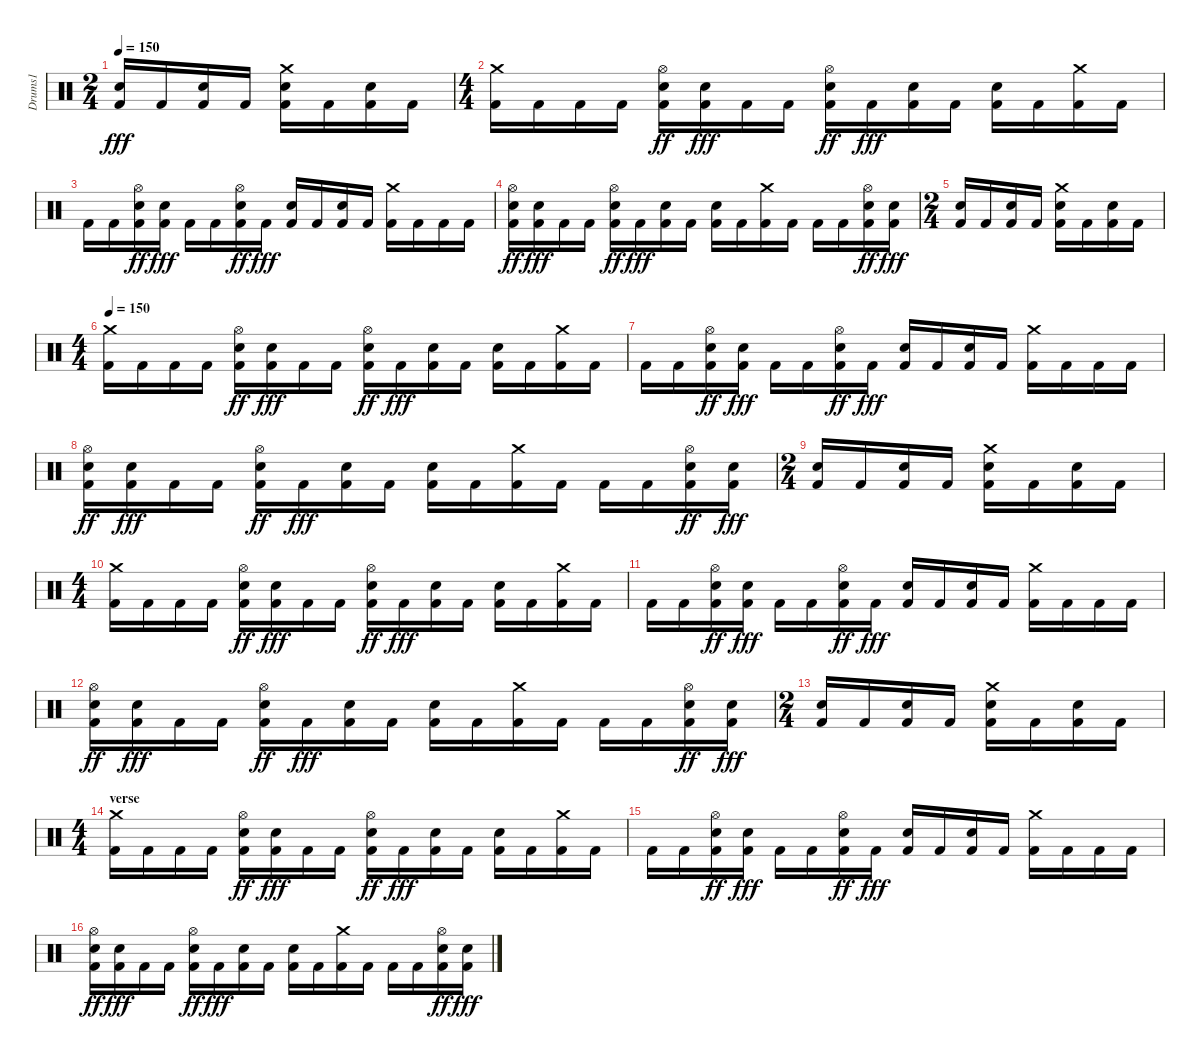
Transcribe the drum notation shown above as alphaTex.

\track ("Drums1" "Drums1") {instrument percussion}
\staff {score}
\articulation defaults
\ts (2 4)
\tempo 150
\clef neutral
\ks c
("Kick (hit) 2" "Electric Snare (hit)").16{dy fff} "Kick (hit) 2".16 ("Kick (hit) 2" "Electric Snare (hit)").16 "Kick (hit) 2".16 ("Kick (hit) 2" "Electric Snare (hit)" "Crash medium (hit)").16 "Kick (hit) 2".16 ("Kick (hit) 2" "Electric Snare (hit)").16 "Kick (hit) 2".16 |
\ts (4 4)
("Crash medium (hit)" "Kick (hit) 2").16 "Kick (hit) 2".16 "Kick (hit) 2".16 "Kick (hit) 2".16 ("Electric Snare (hit)" "Kick (hit) 2" "Hi-Hat (open)").16{dy ff} ("Electric Snare (hit)" "Kick (hit) 2").16{dy fff} "Kick (hit) 2".16 "Kick (hit) 2".16 ("Electric Snare (hit)" "Kick (hit) 2" "Hi-Hat (open)").16{dy ff} "Kick (hit) 2".16{dy fff} ("Electric Snare (hit)" "Kick (hit) 2").16 "Kick (hit) 2".16 ("Electric Snare (hit)" "Kick (hit) 2").16 "Kick (hit) 2".16 ("Crash medium (hit)" "Kick (hit) 2").16 "Kick (hit) 2".16 |
"Kick (hit) 2".16 "Kick (hit) 2".16 ("Electric Snare (hit)" "Kick (hit) 2" "Hi-Hat (open)").16{dy ff} ("Electric Snare (hit)" "Kick (hit) 2").16{dy fff} "Kick (hit) 2".16 "Kick (hit) 2".16 ("Electric Snare (hit)" "Kick (hit) 2" "Hi-Hat (open)").16{dy ff} "Kick (hit) 2".16{dy fff} ("Electric Snare (hit)" "Kick (hit) 2").16 "Kick (hit) 2".16 ("Electric Snare (hit)" "Kick (hit) 2").16 "Kick (hit) 2".16 ("Crash medium (hit)" "Kick (hit) 2").16 "Kick (hit) 2".16 "Kick (hit) 2".16 "Kick (hit) 2".16 |
("Electric Snare (hit)" "Kick (hit) 2" "Hi-Hat (open)").16{dy ff} ("Electric Snare (hit)" "Kick (hit) 2").16{dy fff} "Kick (hit) 2".16 "Kick (hit) 2".16 ("Electric Snare (hit)" "Kick (hit) 2" "Hi-Hat (open)").16{dy ff} "Kick (hit) 2".16{dy fff} ("Electric Snare (hit)" "Kick (hit) 2").16 "Kick (hit) 2".16 ("Electric Snare (hit)" "Kick (hit) 2").16 "Kick (hit) 2".16 ("Crash medium (hit)" "Kick (hit) 2").16 "Kick (hit) 2".16 "Kick (hit) 2".16 "Kick (hit) 2".16 ("Electric Snare (hit)" "Kick (hit) 2" "Hi-Hat (open)").16{dy ff} ("Electric Snare (hit)" "Kick (hit) 2").16{dy fff} |
\ts (2 4)
("Kick (hit) 2" "Electric Snare (hit)").16 "Kick (hit) 2".16 ("Kick (hit) 2" "Electric Snare (hit)").16 "Kick (hit) 2".16 ("Kick (hit) 2" "Electric Snare (hit)" "Crash medium (hit)").16 "Kick (hit) 2".16 ("Kick (hit) 2" "Electric Snare (hit)").16 "Kick (hit) 2".16 |
\ts (4 4)
\tempo 150
("Crash medium (hit)" "Kick (hit) 2").16 "Kick (hit) 2".16 "Kick (hit) 2".16 "Kick (hit) 2".16 ("Electric Snare (hit)" "Kick (hit) 2" "Hi-Hat (open)").16{dy ff} ("Electric Snare (hit)" "Kick (hit) 2").16{dy fff} "Kick (hit) 2".16 "Kick (hit) 2".16 ("Electric Snare (hit)" "Kick (hit) 2" "Hi-Hat (open)").16{dy ff} "Kick (hit) 2".16{dy fff} ("Electric Snare (hit)" "Kick (hit) 2").16 "Kick (hit) 2".16 ("Electric Snare (hit)" "Kick (hit) 2").16 "Kick (hit) 2".16 ("Crash medium (hit)" "Kick (hit) 2").16 "Kick (hit) 2".16 |
"Kick (hit) 2".16 "Kick (hit) 2".16 ("Electric Snare (hit)" "Kick (hit) 2" "Hi-Hat (open)").16{dy ff} ("Electric Snare (hit)" "Kick (hit) 2").16{dy fff} "Kick (hit) 2".16 "Kick (hit) 2".16 ("Electric Snare (hit)" "Kick (hit) 2" "Hi-Hat (open)").16{dy ff} "Kick (hit) 2".16{dy fff} ("Electric Snare (hit)" "Kick (hit) 2").16 "Kick (hit) 2".16 ("Electric Snare (hit)" "Kick (hit) 2").16 "Kick (hit) 2".16 ("Crash medium (hit)" "Kick (hit) 2").16 "Kick (hit) 2".16 "Kick (hit) 2".16 "Kick (hit) 2".16 |
("Electric Snare (hit)" "Kick (hit) 2" "Hi-Hat (open)").16{dy ff} ("Electric Snare (hit)" "Kick (hit) 2").16{dy fff} "Kick (hit) 2".16 "Kick (hit) 2".16 ("Electric Snare (hit)" "Kick (hit) 2" "Hi-Hat (open)").16{dy ff} "Kick (hit) 2".16{dy fff} ("Electric Snare (hit)" "Kick (hit) 2").16 "Kick (hit) 2".16 ("Electric Snare (hit)" "Kick (hit) 2").16 "Kick (hit) 2".16 ("Crash medium (hit)" "Kick (hit) 2").16 "Kick (hit) 2".16 "Kick (hit) 2".16 "Kick (hit) 2".16 ("Electric Snare (hit)" "Kick (hit) 2" "Hi-Hat (open)").16{dy ff} ("Electric Snare (hit)" "Kick (hit) 2").16{dy fff} |
\ts (2 4)
("Kick (hit) 2" "Electric Snare (hit)").16 "Kick (hit) 2".16 ("Kick (hit) 2" "Electric Snare (hit)").16 "Kick (hit) 2".16 ("Kick (hit) 2" "Electric Snare (hit)" "Crash medium (hit)").16 "Kick (hit) 2".16 ("Kick (hit) 2" "Electric Snare (hit)").16 "Kick (hit) 2".16 |
\ts (4 4)
("Crash medium (hit)" "Kick (hit) 2").16 "Kick (hit) 2".16 "Kick (hit) 2".16 "Kick (hit) 2".16 ("Electric Snare (hit)" "Kick (hit) 2" "Hi-Hat (open)").16{dy ff} ("Electric Snare (hit)" "Kick (hit) 2").16{dy fff} "Kick (hit) 2".16 "Kick (hit) 2".16 ("Electric Snare (hit)" "Kick (hit) 2" "Hi-Hat (open)").16{dy ff} "Kick (hit) 2".16{dy fff} ("Electric Snare (hit)" "Kick (hit) 2").16 "Kick (hit) 2".16 ("Electric Snare (hit)" "Kick (hit) 2").16 "Kick (hit) 2".16 ("Crash medium (hit)" "Kick (hit) 2").16 "Kick (hit) 2".16 |
"Kick (hit) 2".16 "Kick (hit) 2".16 ("Electric Snare (hit)" "Kick (hit) 2" "Hi-Hat (open)").16{dy ff} ("Electric Snare (hit)" "Kick (hit) 2").16{dy fff} "Kick (hit) 2".16 "Kick (hit) 2".16 ("Electric Snare (hit)" "Kick (hit) 2" "Hi-Hat (open)").16{dy ff} "Kick (hit) 2".16{dy fff} ("Electric Snare (hit)" "Kick (hit) 2").16 "Kick (hit) 2".16 ("Electric Snare (hit)" "Kick (hit) 2").16 "Kick (hit) 2".16 ("Crash medium (hit)" "Kick (hit) 2").16 "Kick (hit) 2".16 "Kick (hit) 2".16 "Kick (hit) 2".16 |
("Electric Snare (hit)" "Kick (hit) 2" "Hi-Hat (open)").16{dy ff} ("Electric Snare (hit)" "Kick (hit) 2").16{dy fff} "Kick (hit) 2".16 "Kick (hit) 2".16 ("Electric Snare (hit)" "Kick (hit) 2" "Hi-Hat (open)").16{dy ff} "Kick (hit) 2".16{dy fff} ("Electric Snare (hit)" "Kick (hit) 2").16 "Kick (hit) 2".16 ("Electric Snare (hit)" "Kick (hit) 2").16 "Kick (hit) 2".16 ("Crash medium (hit)" "Kick (hit) 2").16 "Kick (hit) 2".16 "Kick (hit) 2".16 "Kick (hit) 2".16 ("Electric Snare (hit)" "Kick (hit) 2" "Hi-Hat (open)").16{dy ff} ("Electric Snare (hit)" "Kick (hit) 2").16{dy fff} |
\ts (2 4)
("Kick (hit) 2" "Electric Snare (hit)").16 "Kick (hit) 2".16 ("Kick (hit) 2" "Electric Snare (hit)").16 "Kick (hit) 2".16 ("Kick (hit) 2" "Electric Snare (hit)" "Crash medium (hit)").16 "Kick (hit) 2".16 ("Kick (hit) 2" "Electric Snare (hit)").16 "Kick (hit) 2".16 |
\ts (4 4)
\section ("" "verse")
("Crash medium (hit)" "Kick (hit) 2").16 "Kick (hit) 2".16 "Kick (hit) 2".16 "Kick (hit) 2".16 ("Electric Snare (hit)" "Kick (hit) 2" "Hi-Hat (open)").16{dy ff} ("Electric Snare (hit)" "Kick (hit) 2").16{dy fff} "Kick (hit) 2".16 "Kick (hit) 2".16 ("Electric Snare (hit)" "Kick (hit) 2" "Hi-Hat (open)").16{dy ff} "Kick (hit) 2".16{dy fff} ("Electric Snare (hit)" "Kick (hit) 2").16 "Kick (hit) 2".16 ("Electric Snare (hit)" "Kick (hit) 2").16 "Kick (hit) 2".16 ("Crash medium (hit)" "Kick (hit) 2").16 "Kick (hit) 2".16 |
"Kick (hit) 2".16 "Kick (hit) 2".16 ("Electric Snare (hit)" "Kick (hit) 2" "Hi-Hat (open)").16{dy ff} ("Electric Snare (hit)" "Kick (hit) 2").16{dy fff} "Kick (hit) 2".16 "Kick (hit) 2".16 ("Electric Snare (hit)" "Kick (hit) 2" "Hi-Hat (open)").16{dy ff} "Kick (hit) 2".16{dy fff} ("Electric Snare (hit)" "Kick (hit) 2").16 "Kick (hit) 2".16 ("Electric Snare (hit)" "Kick (hit) 2").16 "Kick (hit) 2".16 ("Crash medium (hit)" "Kick (hit) 2").16 "Kick (hit) 2".16 "Kick (hit) 2".16 "Kick (hit) 2".16 |
("Electric Snare (hit)" "Kick (hit) 2" "Hi-Hat (open)").16{dy ff} ("Electric Snare (hit)" "Kick (hit) 2").16{dy fff} "Kick (hit) 2".16 "Kick (hit) 2".16 ("Electric Snare (hit)" "Kick (hit) 2" "Hi-Hat (open)").16{dy ff} "Kick (hit) 2".16{dy fff} ("Electric Snare (hit)" "Kick (hit) 2").16 "Kick (hit) 2".16 ("Electric Snare (hit)" "Kick (hit) 2").16 "Kick (hit) 2".16 ("Crash medium (hit)" "Kick (hit) 2").16 "Kick (hit) 2".16 "Kick (hit) 2".16 "Kick (hit) 2".16 ("Electric Snare (hit)" "Kick (hit) 2" "Hi-Hat (open)").16{dy ff} ("Electric Snare (hit)" "Kick (hit) 2").16{dy fff}
